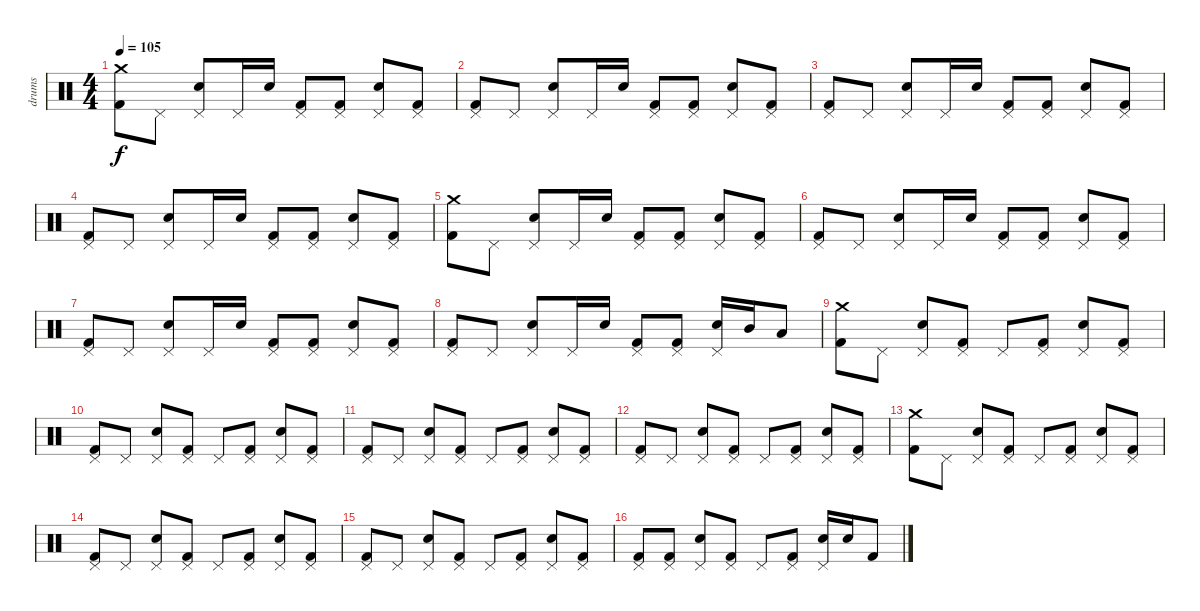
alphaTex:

\track ("drums" "drums") {instrument percussion}
\staff {score}
\articulation defaults
\ts (4 4)
\tempo 105
\clef neutral
\ks c
("Crash medium (hit)" "Kick (hit) 2").8{dy f} "Pedal Hi-Hat (hit)".8 ("Pedal Hi-Hat (hit)" "Electric Snare (hit)").8 "Pedal Hi-Hat (hit)".16 "Electric Snare (hit)".16 ("Pedal Hi-Hat (hit)" "Kick (hit) 2").8 ("Pedal Hi-Hat (hit)" "Kick (hit) 2").8 ("Pedal Hi-Hat (hit)" "Electric Snare (hit)").8 ("Pedal Hi-Hat (hit)" "Kick (hit) 2").8 |
("Pedal Hi-Hat (hit)" "Kick (hit) 2").8 "Pedal Hi-Hat (hit)".8 ("Pedal Hi-Hat (hit)" "Electric Snare (hit)").8 "Pedal Hi-Hat (hit)".16 "Electric Snare (hit)".16 ("Pedal Hi-Hat (hit)" "Kick (hit) 2").8 ("Pedal Hi-Hat (hit)" "Kick (hit) 2").8 ("Pedal Hi-Hat (hit)" "Electric Snare (hit)").8 ("Pedal Hi-Hat (hit)" "Kick (hit) 2").8 |
("Pedal Hi-Hat (hit)" "Kick (hit) 2").8 "Pedal Hi-Hat (hit)".8 ("Pedal Hi-Hat (hit)" "Electric Snare (hit)").8 "Pedal Hi-Hat (hit)".16 "Electric Snare (hit)".16 ("Pedal Hi-Hat (hit)" "Kick (hit) 2").8 ("Pedal Hi-Hat (hit)" "Kick (hit) 2").8 ("Pedal Hi-Hat (hit)" "Electric Snare (hit)").8 ("Pedal Hi-Hat (hit)" "Kick (hit) 2").8 |
("Pedal Hi-Hat (hit)" "Kick (hit) 2").8 "Pedal Hi-Hat (hit)".8 ("Pedal Hi-Hat (hit)" "Electric Snare (hit)").8 "Pedal Hi-Hat (hit)".16 "Electric Snare (hit)".16 ("Pedal Hi-Hat (hit)" "Kick (hit) 2").8 ("Pedal Hi-Hat (hit)" "Kick (hit) 2").8 ("Pedal Hi-Hat (hit)" "Electric Snare (hit)").8 ("Pedal Hi-Hat (hit)" "Kick (hit) 2").8 |
("Crash medium (hit)" "Kick (hit) 2").8 "Pedal Hi-Hat (hit)".8 ("Pedal Hi-Hat (hit)" "Electric Snare (hit)").8 "Pedal Hi-Hat (hit)".16 "Electric Snare (hit)".16 ("Pedal Hi-Hat (hit)" "Kick (hit) 2").8 ("Pedal Hi-Hat (hit)" "Kick (hit) 2").8 ("Pedal Hi-Hat (hit)" "Electric Snare (hit)").8 ("Pedal Hi-Hat (hit)" "Kick (hit) 2").8 |
("Pedal Hi-Hat (hit)" "Kick (hit) 2").8 "Pedal Hi-Hat (hit)".8 ("Pedal Hi-Hat (hit)" "Electric Snare (hit)").8 "Pedal Hi-Hat (hit)".16 "Electric Snare (hit)".16 ("Pedal Hi-Hat (hit)" "Kick (hit) 2").8 ("Pedal Hi-Hat (hit)" "Kick (hit) 2").8 ("Pedal Hi-Hat (hit)" "Electric Snare (hit)").8 ("Pedal Hi-Hat (hit)" "Kick (hit) 2").8 |
("Pedal Hi-Hat (hit)" "Kick (hit) 2").8 "Pedal Hi-Hat (hit)".8 ("Pedal Hi-Hat (hit)" "Electric Snare (hit)").8 "Pedal Hi-Hat (hit)".16 "Electric Snare (hit)".16 ("Pedal Hi-Hat (hit)" "Kick (hit) 2").8 ("Pedal Hi-Hat (hit)" "Kick (hit) 2").8 ("Pedal Hi-Hat (hit)" "Electric Snare (hit)").8 ("Pedal Hi-Hat (hit)" "Kick (hit) 2").8 |
("Pedal Hi-Hat (hit)" "Kick (hit) 2").8 "Pedal Hi-Hat (hit)".8 ("Pedal Hi-Hat (hit)" "Electric Snare (hit)").8 "Pedal Hi-Hat (hit)".16 "Electric Snare (hit)".16 ("Pedal Hi-Hat (hit)" "Kick (hit) 2").8 ("Pedal Hi-Hat (hit)" "Kick (hit) 2").8 ("Pedal Hi-Hat (hit)" "Electric Snare (hit)").16 "Mid Tom (hit)".16 "Low Tom (hit)".8 |
("Crash medium (hit)" "Kick (hit) 2").8 "Pedal Hi-Hat (hit)".8 ("Pedal Hi-Hat (hit)" "Electric Snare (hit)").8 ("Pedal Hi-Hat (hit)" "Kick (hit) 2").8 "Pedal Hi-Hat (hit)".8 ("Pedal Hi-Hat (hit)" "Kick (hit) 2").8 ("Pedal Hi-Hat (hit)" "Electric Snare (hit)").8 ("Pedal Hi-Hat (hit)" "Kick (hit) 2").8 |
("Pedal Hi-Hat (hit)" "Kick (hit) 2").8 "Pedal Hi-Hat (hit)".8 ("Pedal Hi-Hat (hit)" "Electric Snare (hit)").8 ("Pedal Hi-Hat (hit)" "Kick (hit) 2").8 "Pedal Hi-Hat (hit)".8 ("Pedal Hi-Hat (hit)" "Kick (hit) 2").8 ("Pedal Hi-Hat (hit)" "Electric Snare (hit)").8 ("Pedal Hi-Hat (hit)" "Kick (hit) 2").8 |
("Pedal Hi-Hat (hit)" "Kick (hit) 2").8 "Pedal Hi-Hat (hit)".8 ("Pedal Hi-Hat (hit)" "Electric Snare (hit)").8 ("Pedal Hi-Hat (hit)" "Kick (hit) 2").8 "Pedal Hi-Hat (hit)".8 ("Pedal Hi-Hat (hit)" "Kick (hit) 2").8 ("Pedal Hi-Hat (hit)" "Electric Snare (hit)").8 ("Pedal Hi-Hat (hit)" "Kick (hit) 2").8 |
("Pedal Hi-Hat (hit)" "Kick (hit) 2").8 "Pedal Hi-Hat (hit)".8 ("Pedal Hi-Hat (hit)" "Electric Snare (hit)").8 ("Pedal Hi-Hat (hit)" "Kick (hit) 2").8 "Pedal Hi-Hat (hit)".8 ("Pedal Hi-Hat (hit)" "Kick (hit) 2").8 ("Pedal Hi-Hat (hit)" "Electric Snare (hit)").8 ("Pedal Hi-Hat (hit)" "Kick (hit) 2").8 |
("Crash medium (hit)" "Kick (hit) 2").8 "Pedal Hi-Hat (hit)".8 ("Pedal Hi-Hat (hit)" "Electric Snare (hit)").8 ("Pedal Hi-Hat (hit)" "Kick (hit) 2").8 "Pedal Hi-Hat (hit)".8 ("Pedal Hi-Hat (hit)" "Kick (hit) 2").8 ("Pedal Hi-Hat (hit)" "Electric Snare (hit)").8 ("Pedal Hi-Hat (hit)" "Kick (hit) 2").8 |
("Pedal Hi-Hat (hit)" "Kick (hit) 2").8 "Pedal Hi-Hat (hit)".8 ("Pedal Hi-Hat (hit)" "Electric Snare (hit)").8 ("Pedal Hi-Hat (hit)" "Kick (hit) 2").8 "Pedal Hi-Hat (hit)".8 ("Pedal Hi-Hat (hit)" "Kick (hit) 2").8 ("Pedal Hi-Hat (hit)" "Electric Snare (hit)").8 ("Pedal Hi-Hat (hit)" "Kick (hit) 2").8 |
("Pedal Hi-Hat (hit)" "Kick (hit) 2").8 "Pedal Hi-Hat (hit)".8 ("Pedal Hi-Hat (hit)" "Electric Snare (hit)").8 ("Pedal Hi-Hat (hit)" "Kick (hit) 2").8 "Pedal Hi-Hat (hit)".8 ("Pedal Hi-Hat (hit)" "Kick (hit) 2").8 ("Pedal Hi-Hat (hit)" "Electric Snare (hit)").8 ("Pedal Hi-Hat (hit)" "Kick (hit) 2").8 |
("Pedal Hi-Hat (hit)" "Kick (hit) 2").8 ("Pedal Hi-Hat (hit)" "Kick (hit) 2").8 ("Pedal Hi-Hat (hit)" "Electric Snare (hit)").8 ("Pedal Hi-Hat (hit)" "Kick (hit) 2").8 "Pedal Hi-Hat (hit)".8 ("Pedal Hi-Hat (hit)" "Kick (hit) 2").8 ("Pedal Hi-Hat (hit)" "Electric Snare (hit)").16 "Electric Snare (hit)".16 "Kick (hit) 2".8
